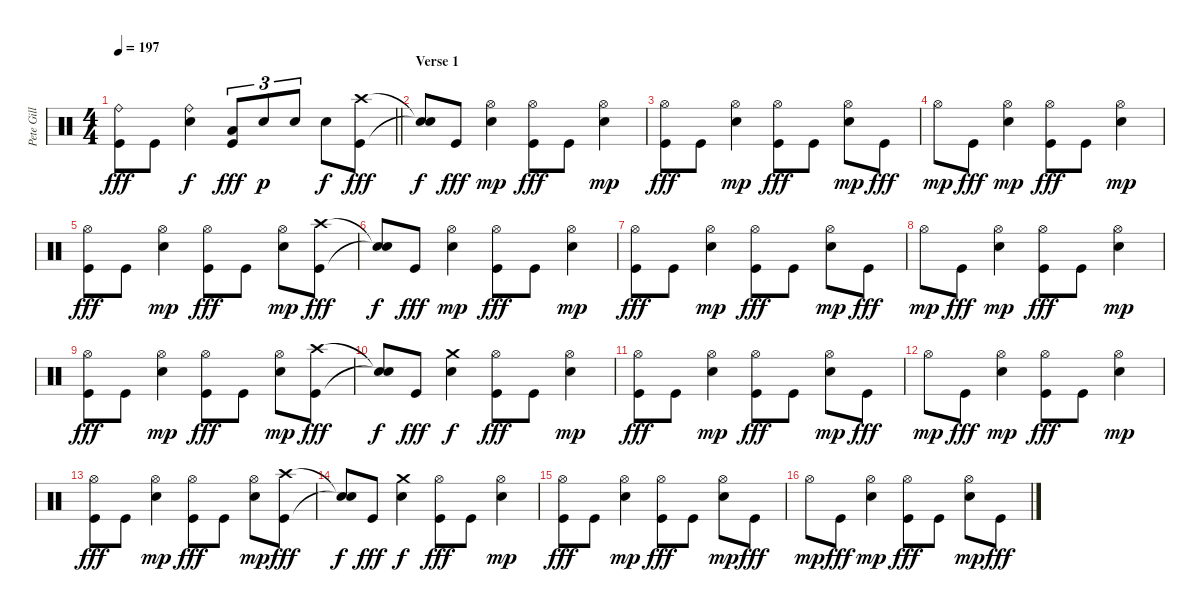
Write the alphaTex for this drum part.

\track ("Pete Gill" "Pete Gill") {instrument percussion}
\staff {score}
\articulation defaults
\ts (4 4)
\tempo 197
\clef neutral
\barLineRight lightlight
\ks c
("Ride (bell)" "Kick (hit)").8{dy fff} "Kick (hit)".8 ("Ride (bell)" "Electric Snare (hit)").4{dy f} ("Low Tom (hit)" "Kick (hit)").8{tu (3 2) dy fff} "Electric Snare (hit)".8{tu (3 2) dy p} "Electric Snare (hit)".8{tu (3 2)} "Electric Snare (hit)".8{dy f} ("Crash high (hit)" "Kick (hit)").8{dy fff} |
\section ("" "Verse 1")
("Snare (hit)"{t} "Snare (hit)"{t}).8{dy f} "Kick (hit)".8{dy fff} ("Hi-Hat (open)" "Electric Snare (hit)").4{dy mp} ("Hi-Hat (open)" "Kick (hit)").8{dy fff} "Kick (hit)".8 ("Hi-Hat (open)" "Electric Snare (hit)").4{dy mp} |
("Hi-Hat (open)" "Kick (hit)").8{dy fff} "Kick (hit)".8 ("Hi-Hat (open)" "Electric Snare (hit)").4{dy mp} ("Hi-Hat (open)" "Kick (hit)").8{dy fff} "Kick (hit)".8 ("Hi-Hat (open)" "Electric Snare (hit)").8{dy mp} "Kick (hit)".8{dy fff} |
"Hi-Hat (open)".8{dy mp} "Kick (hit)".8{dy fff} ("Hi-Hat (open)" "Electric Snare (hit)").4{dy mp} ("Hi-Hat (open)" "Kick (hit)").8{dy fff} "Kick (hit)".8 ("Hi-Hat (open)" "Electric Snare (hit)").4{dy mp} |
("Hi-Hat (open)" "Kick (hit)").8{dy fff} "Kick (hit)".8 ("Hi-Hat (open)" "Electric Snare (hit)").4{dy mp} ("Hi-Hat (open)" "Kick (hit)").8{dy fff} "Kick (hit)".8 ("Hi-Hat (open)" "Electric Snare (hit)").8{dy mp} ("Crash high (hit)" "Kick (hit)").8{dy fff} |
("Snare (hit)"{t} "Snare (hit)"{t}).8{dy f} "Kick (hit)".8{dy fff} ("Hi-Hat (open)" "Electric Snare (hit)").4{dy mp} ("Hi-Hat (open)" "Kick (hit)").8{dy fff} "Kick (hit)".8 ("Hi-Hat (open)" "Electric Snare (hit)").4{dy mp} |
("Hi-Hat (open)" "Kick (hit)").8{dy fff} "Kick (hit)".8 ("Hi-Hat (open)" "Electric Snare (hit)").4{dy mp} ("Hi-Hat (open)" "Kick (hit)").8{dy fff} "Kick (hit)".8 ("Hi-Hat (open)" "Electric Snare (hit)").8{dy mp} "Kick (hit)".8{dy fff} |
"Hi-Hat (open)".8{dy mp} "Kick (hit)".8{dy fff} ("Hi-Hat (open)" "Electric Snare (hit)").4{dy mp} ("Hi-Hat (open)" "Kick (hit)").8{dy fff} "Kick (hit)".8 ("Hi-Hat (open)" "Electric Snare (hit)").4{dy mp} |
("Hi-Hat (open)" "Kick (hit)").8{dy fff} "Kick (hit)".8 ("Hi-Hat (open)" "Electric Snare (hit)").4{dy mp} ("Hi-Hat (open)" "Kick (hit)").8{dy fff} "Kick (hit)".8 ("Hi-Hat (open)" "Electric Snare (hit)").8{dy mp} ("Crash high (hit)" "Kick (hit)").8{dy fff} |
("Snare (hit)"{t} "Snare (hit)"{t}).8{dy f} "Kick (hit)".8{dy fff} ("Crash medium (hit)" "Electric Snare (hit)").4{dy f} ("Hi-Hat (open)" "Kick (hit)").8{dy fff} "Kick (hit)".8 ("Hi-Hat (open)" "Electric Snare (hit)").4{dy mp} |
("Hi-Hat (open)" "Kick (hit)").8{dy fff} "Kick (hit)".8 ("Hi-Hat (open)" "Electric Snare (hit)").4{dy mp} ("Hi-Hat (open)" "Kick (hit)").8{dy fff} "Kick (hit)".8 ("Hi-Hat (open)" "Electric Snare (hit)").8{dy mp} "Kick (hit)".8{dy fff} |
"Hi-Hat (open)".8{dy mp} "Kick (hit)".8{dy fff} ("Hi-Hat (open)" "Electric Snare (hit)").4{dy mp} ("Hi-Hat (open)" "Kick (hit)").8{dy fff} "Kick (hit)".8 ("Hi-Hat (open)" "Electric Snare (hit)").4{dy mp} |
("Hi-Hat (open)" "Kick (hit)").8{dy fff} "Kick (hit)".8 ("Hi-Hat (open)" "Electric Snare (hit)").4{dy mp} ("Hi-Hat (open)" "Kick (hit)").8{dy fff} "Kick (hit)".8 ("Hi-Hat (open)" "Electric Snare (hit)").8{dy mp} ("Crash high (hit)" "Kick (hit)").8{dy fff} |
("Snare (hit)"{t} "Snare (hit)"{t}).8{dy f} "Kick (hit)".8{dy fff} ("Crash medium (hit)" "Electric Snare (hit)").4{dy f} ("Hi-Hat (open)" "Kick (hit)").8{dy fff} "Kick (hit)".8 ("Hi-Hat (open)" "Electric Snare (hit)").4{dy mp} |
("Hi-Hat (open)" "Kick (hit)").8{dy fff} "Kick (hit)".8 ("Hi-Hat (open)" "Electric Snare (hit)").4{dy mp} ("Hi-Hat (open)" "Kick (hit)").8{dy fff} "Kick (hit)".8 ("Hi-Hat (open)" "Electric Snare (hit)").8{dy mp} "Kick (hit)".8{dy fff} |
"Hi-Hat (open)".8{dy mp} "Kick (hit)".8{dy fff} ("Hi-Hat (open)" "Electric Snare (hit)").4{dy mp} ("Hi-Hat (open)" "Kick (hit)").8{dy fff} "Kick (hit)".8 ("Hi-Hat (open)" "Electric Snare (hit)").8{dy mp} "Kick (hit)".8{dy fff}
